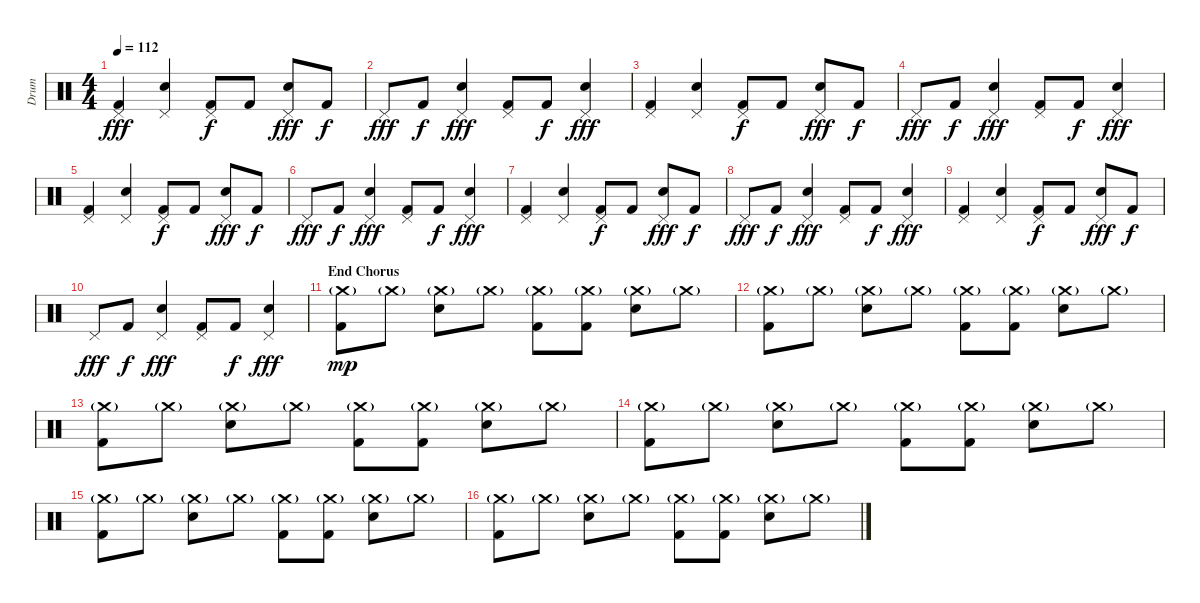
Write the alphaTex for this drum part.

\track ("Drum" "Drum") {instrument percussion}
\staff {score}
\articulation defaults
\ts (4 4)
\tempo 112
\clef neutral
\ks c
("Pedal Hi-Hat (hit)" "Kick (hit) 2").4{dy fff} ("Pedal Hi-Hat (hit)" "Electric Snare (hit)").4 ("Pedal Hi-Hat (hit)" "Kick (hit) 2").8{dy f} "Kick (hit) 2".8 ("Pedal Hi-Hat (hit)" "Electric Snare (hit)").8{dy fff} "Kick (hit) 2".8{dy f} |
"Pedal Hi-Hat (hit)".8{dy fff} "Kick (hit) 2".8{dy f} ("Pedal Hi-Hat (hit)" "Electric Snare (hit)").4{dy fff} ("Pedal Hi-Hat (hit)" "Kick (hit) 2").8 "Kick (hit) 2".8{dy f} ("Pedal Hi-Hat (hit)" "Electric Snare (hit)").4{dy fff} |
("Pedal Hi-Hat (hit)" "Kick (hit) 2").4 ("Pedal Hi-Hat (hit)" "Electric Snare (hit)").4 ("Pedal Hi-Hat (hit)" "Kick (hit) 2").8{dy f} "Kick (hit) 2".8 ("Pedal Hi-Hat (hit)" "Electric Snare (hit)").8{dy fff} "Kick (hit) 2".8{dy f} |
"Pedal Hi-Hat (hit)".8{dy fff} "Kick (hit) 2".8{dy f} ("Pedal Hi-Hat (hit)" "Electric Snare (hit)").4{dy fff} ("Pedal Hi-Hat (hit)" "Kick (hit) 2").8 "Kick (hit) 2".8{dy f} ("Pedal Hi-Hat (hit)" "Electric Snare (hit)").4{dy fff} |
("Pedal Hi-Hat (hit)" "Kick (hit) 2").4 ("Pedal Hi-Hat (hit)" "Electric Snare (hit)").4 ("Pedal Hi-Hat (hit)" "Kick (hit) 2").8{dy f} "Kick (hit) 2".8 ("Pedal Hi-Hat (hit)" "Electric Snare (hit)").8{dy fff} "Kick (hit) 2".8{dy f} |
"Pedal Hi-Hat (hit)".8{dy fff} "Kick (hit) 2".8{dy f} ("Pedal Hi-Hat (hit)" "Electric Snare (hit)").4{dy fff} ("Pedal Hi-Hat (hit)" "Kick (hit) 2").8 "Kick (hit) 2".8{dy f} ("Pedal Hi-Hat (hit)" "Electric Snare (hit)").4{dy fff} |
("Pedal Hi-Hat (hit)" "Kick (hit) 2").4 ("Pedal Hi-Hat (hit)" "Electric Snare (hit)").4 ("Pedal Hi-Hat (hit)" "Kick (hit) 2").8{dy f} "Kick (hit) 2".8 ("Pedal Hi-Hat (hit)" "Electric Snare (hit)").8{dy fff} "Kick (hit) 2".8{dy f} |
"Pedal Hi-Hat (hit)".8{dy fff} "Kick (hit) 2".8{dy f} ("Pedal Hi-Hat (hit)" "Electric Snare (hit)").4{dy fff} ("Pedal Hi-Hat (hit)" "Kick (hit) 2").8 "Kick (hit) 2".8{dy f} ("Pedal Hi-Hat (hit)" "Electric Snare (hit)").4{dy fff} |
("Pedal Hi-Hat (hit)" "Kick (hit) 2").4 ("Pedal Hi-Hat (hit)" "Electric Snare (hit)").4 ("Pedal Hi-Hat (hit)" "Kick (hit) 2").8{dy f} "Kick (hit) 2".8 ("Pedal Hi-Hat (hit)" "Electric Snare (hit)").8{dy fff} "Kick (hit) 2".8{dy f} |
"Pedal Hi-Hat (hit)".8{dy fff} "Kick (hit) 2".8{dy f} ("Pedal Hi-Hat (hit)" "Electric Snare (hit)").4{dy fff} ("Pedal Hi-Hat (hit)" "Kick (hit) 2").8 "Kick (hit) 2".8{dy f} ("Pedal Hi-Hat (hit)" "Electric Snare (hit)").4{dy fff} |
\section ("" "End Chorus")
("Crash medium (hit)"{g} "Kick (hit) 2").8{dy mp} "Crash medium (hit)"{g}.8 ("Crash medium (hit)"{g} "Electric Snare (hit)").8 "Crash medium (hit)"{g}.8 ("Crash medium (hit)"{g} "Kick (hit) 2").8 ("Crash medium (hit)"{g} "Kick (hit) 2").8 ("Crash medium (hit)"{g} "Electric Snare (hit)").8 "Crash medium (hit)"{g}.8 |
("Crash medium (hit)"{g} "Kick (hit) 2").8 "Crash medium (hit)"{g}.8 ("Crash medium (hit)"{g} "Electric Snare (hit)").8 "Crash medium (hit)"{g}.8 ("Crash medium (hit)"{g} "Kick (hit) 2").8 ("Crash medium (hit)"{g} "Kick (hit) 2").8 ("Crash medium (hit)"{g} "Electric Snare (hit)").8 "Crash medium (hit)"{g}.8 |
("Crash medium (hit)"{g} "Kick (hit) 2").8 "Crash medium (hit)"{g}.8 ("Crash medium (hit)"{g} "Electric Snare (hit)").8 "Crash medium (hit)"{g}.8 ("Crash medium (hit)"{g} "Kick (hit) 2").8 ("Crash medium (hit)"{g} "Kick (hit) 2").8 ("Crash medium (hit)"{g} "Electric Snare (hit)").8 "Crash medium (hit)"{g}.8 |
("Crash medium (hit)"{g} "Kick (hit) 2").8 "Crash medium (hit)"{g}.8 ("Crash medium (hit)"{g} "Electric Snare (hit)").8 "Crash medium (hit)"{g}.8 ("Crash medium (hit)"{g} "Kick (hit) 2").8 ("Crash medium (hit)"{g} "Kick (hit) 2").8 ("Crash medium (hit)"{g} "Electric Snare (hit)").8 "Crash medium (hit)"{g}.8 |
("Crash medium (hit)"{g} "Kick (hit) 2").8 "Crash medium (hit)"{g}.8 ("Crash medium (hit)"{g} "Electric Snare (hit)").8 "Crash medium (hit)"{g}.8 ("Crash medium (hit)"{g} "Kick (hit) 2").8 ("Crash medium (hit)"{g} "Kick (hit) 2").8 ("Crash medium (hit)"{g} "Electric Snare (hit)").8 "Crash medium (hit)"{g}.8 |
("Crash medium (hit)"{g} "Kick (hit) 2").8 "Crash medium (hit)"{g}.8 ("Crash medium (hit)"{g} "Electric Snare (hit)").8 "Crash medium (hit)"{g}.8 ("Crash medium (hit)"{g} "Kick (hit) 2").8 ("Crash medium (hit)"{g} "Kick (hit) 2").8 ("Crash medium (hit)"{g} "Electric Snare (hit)").8 "Crash medium (hit)"{g}.8
